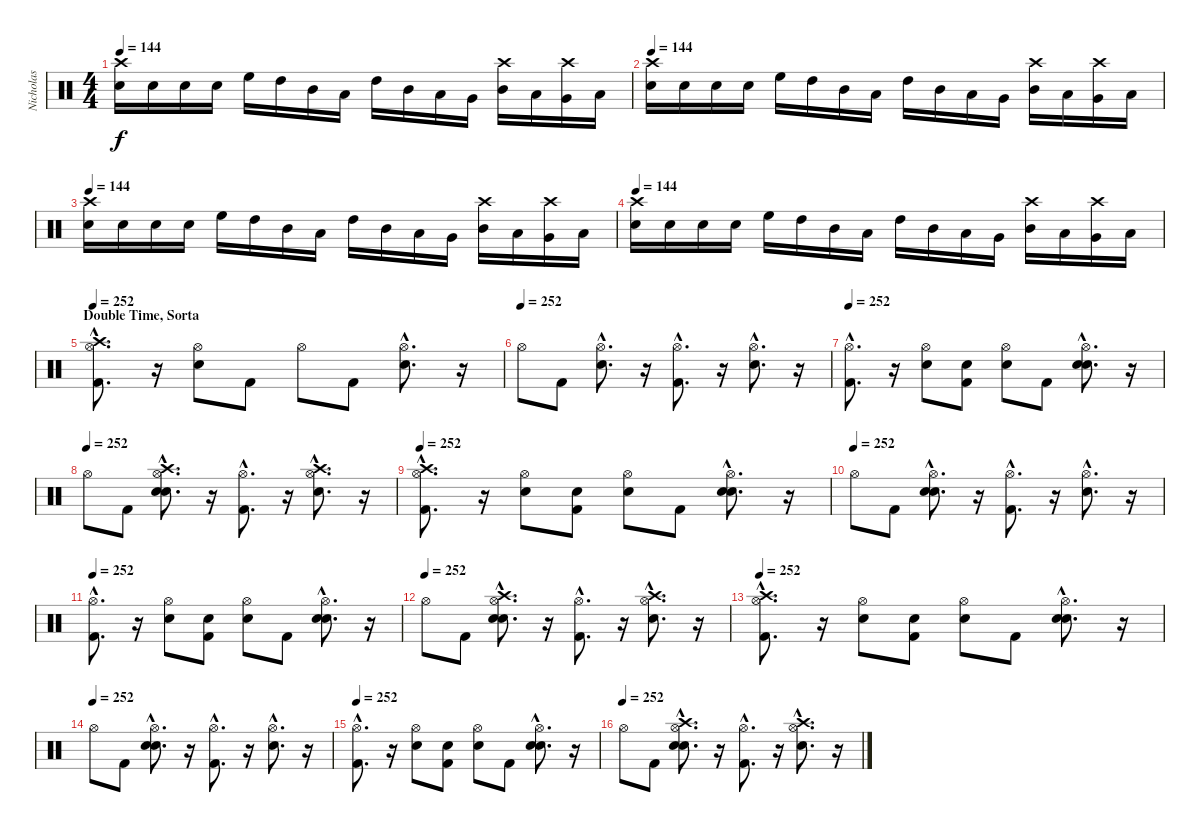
\track ("Nicholas" "Nicholas") {instrument percussion}
\staff {score}
\articulation defaults
\ts (4 4)
\tempo 144
\clef neutral
\ks c
("Snare (hit) 2" "Crash high (hit)").16{dy f} "Snare (hit) 2".16 "Snare (hit) 2".16 "Snare (hit) 2".16 "High Floor Tom (hit)".16 "High Tom (hit)".16 "Mid Tom (hit)".16 "Low Tom (hit)".16 "High Tom (hit)".16 "Mid Tom (hit)".16 "Low Tom (hit)".16 "Very Low Tom (hit)".16 ("Mid Tom (hit)" "Crash high (hit)").16 "Low Tom (hit)".16 ("Very Low Tom (hit)" "Crash high (hit)").16 "Low Floor Tom (hit)".16 |
\tempo 144
("Snare (hit) 2" "Crash high (hit)").16 "Snare (hit) 2".16 "Snare (hit) 2".16 "Snare (hit) 2".16 "High Floor Tom (hit)".16 "High Tom (hit)".16 "Mid Tom (hit)".16 "Low Tom (hit)".16 "High Tom (hit)".16 "Mid Tom (hit)".16 "Low Tom (hit)".16 "Very Low Tom (hit)".16 ("Mid Tom (hit)" "Crash high (hit)").16 "Low Tom (hit)".16 ("Very Low Tom (hit)" "Crash high (hit)").16 "Low Floor Tom (hit)".16 |
\tempo 144
("Snare (hit) 2" "Crash high (hit)").16 "Snare (hit) 2".16 "Snare (hit) 2".16 "Snare (hit) 2".16 "High Floor Tom (hit)".16 "High Tom (hit)".16 "Mid Tom (hit)".16 "Low Tom (hit)".16 "High Tom (hit)".16 "Mid Tom (hit)".16 "Low Tom (hit)".16 "Very Low Tom (hit)".16 ("Mid Tom (hit)" "Crash high (hit)").16 "Low Tom (hit)".16 ("Very Low Tom (hit)" "Crash high (hit)").16 "Low Floor Tom (hit)".16 |
\tempo 144
("Snare (hit) 2" "Crash high (hit)").16 "Snare (hit) 2".16 "Snare (hit) 2".16 "Snare (hit) 2".16 "High Floor Tom (hit)".16 "High Tom (hit)".16 "Mid Tom (hit)".16 "Low Tom (hit)".16 "High Tom (hit)".16 "Mid Tom (hit)".16 "Low Tom (hit)".16 "Very Low Tom (hit)".16 ("Mid Tom (hit)" "Crash high (hit)").16 "Low Tom (hit)".16 ("Very Low Tom (hit)" "Crash high (hit)").16 "Low Floor Tom (hit)".16 |
\section ("" "Double Time, Sorta")
\tempo 252
("Kick (hit) 2"{hac} "Hi-Hat (open)"{hac} "Crash high (hit)"{hac}).8{d} r.16 ("Snare (hit) 2" "Hi-Hat (open)").8 "Kick (hit) 2".8 "Hi-Hat (open)".8 "Kick (hit) 2".8 ("Snare (hit) 2"{hac} "Hi-Hat (open)"{hac}).8{d} r.16 |
\tempo (252)
"Hi-Hat (open)".8 "Kick (hit) 2".8 ("Snare (hit) 2"{hac} "Hi-Hat (open)"{hac}).8{d} r.16 ("Kick (hit) 2"{hac} "Hi-Hat (open)"{hac}).8{d} r.16 ("Snare (hit) 2"{hac} "Hi-Hat (open)"{hac}).8{d} r.16 |
\tempo 252
("Kick (hit) 2"{hac} "Hi-Hat (open)"{hac}).8{d} r.16 ("Snare (hit) 2" "Hi-Hat (open)").8 ("Snare (hit)" "Kick (hit) 2").8 ("Snare (hit)" "Hi-Hat (open)").8 "Kick (hit) 2".8 ("Snare (hit)"{hac} "Snare (hit) 2"{hac} "Hi-Hat (open)"{hac}).8{d} r.16 |
\tempo (252)
"Hi-Hat (open)".8 "Kick (hit) 2".8 ("Snare (hit)"{hac} "Snare (hit) 2"{hac} "Hi-Hat (open)"{hac} "Crash high (hit)"{hac}).8{d} r.16 ("Kick (hit) 2"{hac} "Hi-Hat (open)"{hac}).8{d} r.16 ("Snare (hit) 2"{hac} "Hi-Hat (open)"{hac} "Crash high (hit)"{hac}).8{d} r.16 |
\tempo 252
("Kick (hit) 2"{hac} "Hi-Hat (open)"{hac} "Crash high (hit)"{hac}).8{d} r.16 ("Snare (hit) 2" "Hi-Hat (open)").8 ("Snare (hit)" "Kick (hit) 2").8 ("Snare (hit)" "Hi-Hat (open)").8 "Kick (hit) 2".8 ("Snare (hit)"{hac} "Snare (hit) 2"{hac} "Hi-Hat (open)"{hac}).8{d} r.16 |
\tempo (252)
"Hi-Hat (open)".8 "Kick (hit) 2".8 ("Snare (hit)"{hac} "Snare (hit) 2"{hac} "Hi-Hat (open)"{hac}).8{d} r.16 ("Kick (hit) 2"{hac} "Hi-Hat (open)"{hac}).8{d} r.16 ("Snare (hit) 2"{hac} "Hi-Hat (open)"{hac}).8{d} r.16 |
\tempo 252
("Kick (hit) 2"{hac} "Hi-Hat (open)"{hac}).8{d} r.16 ("Snare (hit) 2" "Hi-Hat (open)").8 ("Snare (hit)" "Kick (hit) 2").8 ("Snare (hit)" "Hi-Hat (open)").8 "Kick (hit) 2".8 ("Snare (hit)"{hac} "Snare (hit) 2"{hac} "Hi-Hat (open)"{hac}).8{d} r.16 |
\tempo (252)
"Hi-Hat (open)".8 "Kick (hit) 2".8 ("Snare (hit)"{hac} "Snare (hit) 2"{hac} "Hi-Hat (open)"{hac} "Crash high (hit)"{hac}).8{d} r.16 ("Kick (hit) 2"{hac} "Hi-Hat (open)"{hac}).8{d} r.16 ("Snare (hit) 2"{hac} "Hi-Hat (open)"{hac} "Crash high (hit)"{hac}).8{d} r.16 |
\tempo 252
("Kick (hit) 2"{hac} "Hi-Hat (open)"{hac} "Crash high (hit)"{hac}).8{d} r.16 ("Snare (hit) 2" "Hi-Hat (open)").8 ("Snare (hit)" "Kick (hit) 2").8 ("Snare (hit)" "Hi-Hat (open)").8 "Kick (hit) 2".8 ("Snare (hit)"{hac} "Snare (hit) 2"{hac} "Hi-Hat (open)"{hac}).8{d} r.16 |
\tempo (252)
"Hi-Hat (open)".8 "Kick (hit) 2".8 ("Snare (hit)"{hac} "Snare (hit) 2"{hac} "Hi-Hat (open)"{hac}).8{d} r.16 ("Kick (hit) 2"{hac} "Hi-Hat (open)"{hac}).8{d} r.16 ("Snare (hit) 2"{hac} "Hi-Hat (open)"{hac}).8{d} r.16 |
\tempo 252
("Kick (hit) 2"{hac} "Hi-Hat (open)"{hac}).8{d} r.16 ("Snare (hit) 2" "Hi-Hat (open)").8 ("Snare (hit)" "Kick (hit) 2").8 ("Snare (hit)" "Hi-Hat (open)").8 "Kick (hit) 2".8 ("Snare (hit)"{hac} "Snare (hit) 2"{hac} "Hi-Hat (open)"{hac}).8{d} r.16 |
\tempo (252)
"Hi-Hat (open)".8 "Kick (hit) 2".8 ("Snare (hit)"{hac} "Snare (hit) 2"{hac} "Hi-Hat (open)"{hac} "Crash high (hit)"{hac}).8{d} r.16 ("Kick (hit) 2"{hac} "Hi-Hat (open)"{hac}).8{d} r.16 ("Snare (hit) 2"{hac} "Hi-Hat (open)"{hac} "Crash high (hit)"{hac}).8{d} r.16
